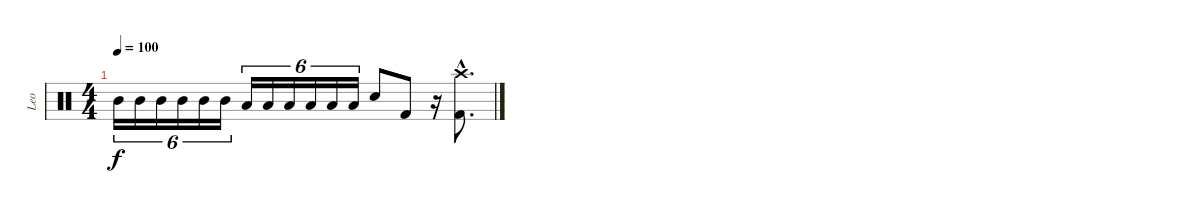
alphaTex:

\track ("Leo" "Leo") {instrument percussion}
\staff {score}
\articulation defaults
\ts (4 4)
\tempo 100
\clef neutral
\ks c "Mid Tom (hit)".16{tu (6 4) dy f} "Mid Tom (hit)".16{tu (6 4)} "Mid Tom (hit)".16{tu (6 4)} "Mid Tom (hit)".16{tu (6 4)} "Mid Tom (hit)".16{tu (6 4)} "Mid Tom (hit)".16{tu (6 4)} "Low Floor Tom (hit)".16{tu (6 4)} "Low Floor Tom (hit)".16{tu (6 4)} "Low Floor Tom (hit)".16{tu (6 4)} "Low Floor Tom (hit)".16{tu (6 4)} "Low Floor Tom (hit)".16{tu (6 4)} "Low Floor Tom (hit)".16{tu (6 4)} "Snare (hit) 2".8 "Kick (hit) 2".8
r.16 ("Crash high (hit)"{hac} "Kick (hit) 2"{hac}).8{d}
